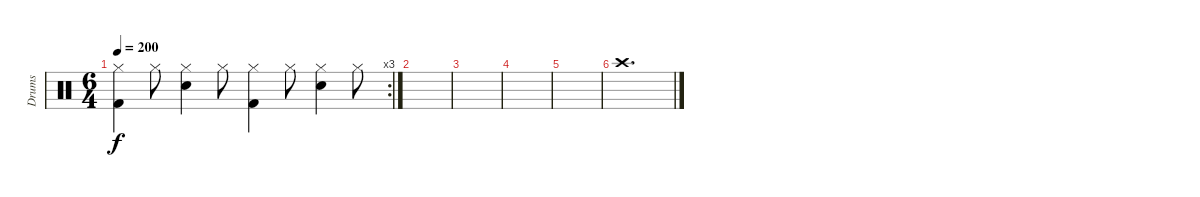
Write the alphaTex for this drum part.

\track ("Drums" "Drums") {instrument percussion}
\staff {score}
\articulation defaults
\rc 3
\ts (6 4)
\tempo 200
\clef neutral
\ks c
("Hi-Hat (closed)" "Kick (hit) 2").4{dy f} "Hi-Hat (closed)".8 ("Hi-Hat (closed)" "Snare (hit) 2").4 "Hi-Hat (closed)".8 ("Hi-Hat (closed)" "Kick (hit) 2").4 "Hi-Hat (closed)".8 ("Hi-Hat (closed)" "Snare (hit) 2").4 "Hi-Hat (closed)".8 |
|
|
|
|
"Crash high (hit)".1{d}
